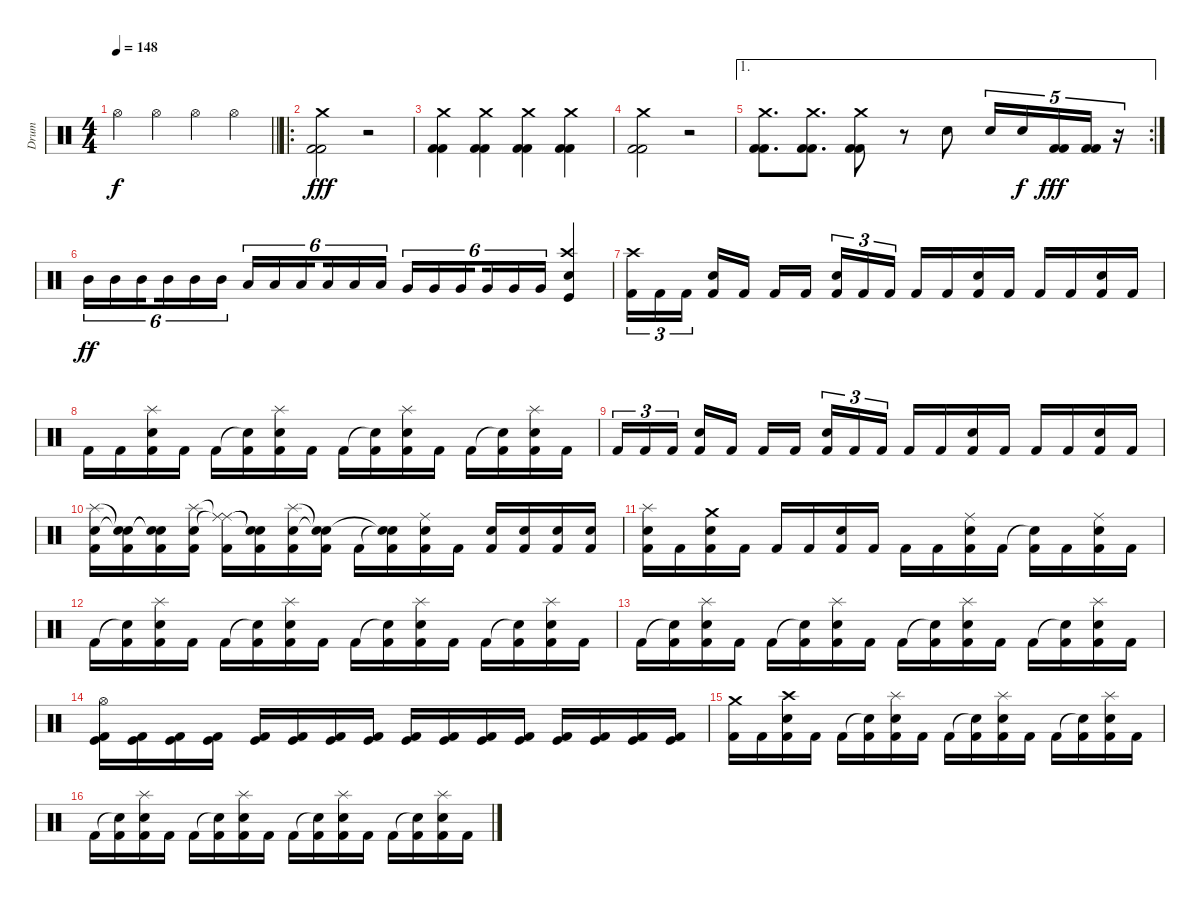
\track ("Drum" "Drum") {instrument percussion}
\staff {score}
\articulation defaults
\ts (4 4)
\tempo 148
\clef neutral
\barLineRight lightlight
\ks c "Hi-Hat (open)".4{dy f} "Hi-Hat (open)".4 "Hi-Hat (open)".4 "Hi-Hat (open)".4
|
\ro
\section ("" "")
("Crash medium (hit)" "Kick (hit) 2" "Kick (hit) 2").2{dy fff} r.2 |
("Crash medium (hit)" "Kick (hit) 2" "Kick (hit) 2").4 ("Crash medium (hit)" "Kick (hit) 2" "Kick (hit) 2").4 ("Crash medium (hit)" "Kick (hit) 2" "Kick (hit) 2").4 ("Crash medium (hit)" "Kick (hit) 2" "Kick (hit) 2").4 |
("Crash medium (hit)" "Kick (hit) 2" "Kick (hit) 2").2 r.2 |
\ae 1
\rc 2
("Crash medium (hit)" "Kick (hit) 2" "Kick (hit) 2").8{d} ("Crash medium (hit)" "Kick (hit) 2" "Kick (hit) 2").8{d} ("Crash medium (hit)" "Kick (hit) 2" "Kick (hit) 2").8 r.8 "Snare (hit) 2".8 "Snare (hit) 2".16{tu (5 4)} "Snare (hit) 2".16{tu (5 4) dy f} ("Kick (hit) 2" "Kick (hit) 2").16{tu (5 4) dy fff} ("Kick (hit) 2" "Kick (hit) 2").16{tu (5 4)} r.16{tu (5 4)} |
"Mid Tom (hit)".16{tu (6 4) dy ff} "Mid Tom (hit)".16{tu (6 4)} "Mid Tom (hit)".16{tu (6 4) beam splitsecondary} "Mid Tom (hit)".16{tu (6 4)} "Mid Tom (hit)".16{tu (6 4)} "Mid Tom (hit)".16{tu (6 4)} "Low Tom (hit)".16{tu (6 4)} "Low Tom (hit)".16{tu (6 4)} "Low Tom (hit)".16{tu (6 4) beam splitsecondary} "Low Tom (hit)".16{tu (6 4)} "Low Tom (hit)".16{tu (6 4)} "Low Tom (hit)".16{tu (6 4)} "Very Low Tom (hit)".16{tu (6 4)} "Very Low Tom (hit)".16{tu (6 4)} "Very Low Tom (hit)".16{tu (6 4) beam splitsecondary} "Very Low Tom (hit)".16{tu (6 4)} "Very Low Tom (hit)".16{tu (6 4)} "Very Low Tom (hit)".16{tu (6 4)} ("Crash high (hit)" "Snare (hit) 2" "Kick (hit)").4 |
("Crash high (hit)" "Kick (hit) 2").16{tu (3 2)} "Kick (hit) 2".16{tu (3 2)} "Kick (hit) 2".16{tu (3 2) beam splitsecondary} ("Snare (hit) 2" "Kick (hit) 2").16 "Kick (hit) 2".16 "Kick (hit) 2".16 "Kick (hit) 2".16{beam splitsecondary} ("Snare (hit) 2" "Kick (hit) 2").16{tu (3 2)} "Kick (hit) 2".16{tu (3 2)} "Kick (hit) 2".16{tu (3 2)} "Kick (hit) 2".16 "Kick (hit) 2".16 ("Snare (hit) 2" "Kick (hit) 2").16 "Kick (hit) 2".16 "Kick (hit) 2".16 "Kick (hit) 2".16 ("Snare (hit) 2" "Kick (hit) 2").16 "Kick (hit) 2".16 |
"Kick (hit) 2".16 "Kick (hit) 2".16 ("Splash (hit)" "Snare (hit) 2" "Kick (hit) 2").16 "Kick (hit) 2".16 "Kick (hit) 2".16 ("Snare (hit)"{t} "Kick (hit) 2").16 ("Splash (hit)" "Snare (hit) 2" "Kick (hit) 2").16 "Kick (hit) 2".16 "Kick (hit) 2".16 ("Snare (hit)"{t} "Kick (hit) 2").16 ("Splash (hit)" "Snare (hit) 2" "Kick (hit) 2").16 "Kick (hit) 2".16 "Kick (hit) 2".16 ("Snare (hit)"{t} "Kick (hit) 2").16 ("Splash (hit)" "Snare (hit) 2" "Kick (hit) 2").16 "Kick (hit) 2".16 |
"Kick (hit) 2".16{tu (3 2)} "Kick (hit) 2".16{tu (3 2)} "Kick (hit) 2".16{tu (3 2) beam splitsecondary} ("Snare (hit) 2" "Kick (hit) 2").16 "Kick (hit) 2".16 "Kick (hit) 2".16 "Kick (hit) 2".16{beam splitsecondary} ("Snare (hit) 2" "Kick (hit) 2").16{tu (3 2)} "Kick (hit) 2".16{tu (3 2)} "Kick (hit) 2".16{tu (3 2)} "Kick (hit) 2".16 "Kick (hit) 2".16 ("Snare (hit) 2" "Kick (hit) 2").16 "Kick (hit) 2".16 "Kick (hit) 2".16 "Kick (hit) 2".16 ("Snare (hit) 2" "Kick (hit) 2").16 "Kick (hit) 2".16 |
("Snare (hit) 2" "Splash (hit)" "Kick (hit) 2").16 ("Snare (hit)"{t} "Snare (hit)"{t} "Kick (hit) 2").16 ("Snare (hit)"{t} "Snare (hit)"{t} "Kick (hit) 2").16 ("Snare (hit) 2" "Splash (hit)" "Kick (hit) 2").16 ("Ride (middle)"{t} "Ride (middle)"{t} "Kick (hit) 2").16 ("Snare (hit)"{t} "Snare (hit)"{t} "Kick (hit) 2").16 ("Snare (hit) 2" "Splash (hit)" "Kick (hit) 2").16 ("Snare (hit)"{t} "Snare (hit)"{t} "Kick (hit) 2").16 "Kick (hit) 2".16 ("Snare (hit)"{t} "Snare (hit)"{t} "Kick (hit) 2").16 ("Snare (hit) 2" "Ride (middle)" "Kick (hit) 2").16 "Kick (hit) 2".16 ("Snare (hit) 2" "Kick (hit) 2").16 ("Snare (hit) 2" "Kick (hit) 2").16 ("Snare (hit) 2" "Kick (hit) 2").16 ("Snare (hit) 2" "Kick (hit) 2").16 |
("Splash (hit)" "Snare (hit) 2" "Kick (hit) 2").16 "Kick (hit) 2".16 ("Crash medium (hit)" "Snare (hit) 2" "Kick (hit) 2").16 "Kick (hit) 2".16 "Kick (hit) 2".16 "Kick (hit) 2".16 ("Snare (hit) 2" "Kick (hit) 2").16 "Kick (hit) 2".16 "Kick (hit) 2".16 "Kick (hit) 2".16 ("Ride (middle)" "Snare (hit) 2" "Kick (hit) 2").16 "Kick (hit) 2".16 ("Snare (hit)"{t} "Kick (hit) 2").16 "Kick (hit) 2".16 ("Ride (middle)" "Snare (hit) 2" "Kick (hit) 2").16 "Kick (hit) 2".16 |
"Kick (hit) 2".16 ("Snare (hit)"{t} "Kick (hit) 2").16 ("Splash (hit)" "Snare (hit) 2" "Kick (hit) 2").16 "Kick (hit) 2".16 "Kick (hit) 2".16 ("Snare (hit)"{t} "Kick (hit) 2").16 ("Splash (hit)" "Snare (hit) 2" "Kick (hit) 2").16 "Kick (hit) 2".16 "Kick (hit) 2".16 ("Snare (hit)"{t} "Kick (hit) 2").16 ("Splash (hit)" "Snare (hit) 2" "Kick (hit) 2").16 "Kick (hit) 2".16 "Kick (hit) 2".16 ("Snare (hit)"{t} "Kick (hit) 2").16 ("Splash (hit)" "Snare (hit) 2" "Kick (hit) 2").16 "Kick (hit) 2".16 |
"Kick (hit) 2".16 ("Snare (hit)"{t} "Kick (hit) 2").16 ("Splash (hit)" "Snare (hit) 2" "Kick (hit) 2").16 "Kick (hit) 2".16 "Kick (hit) 2".16 ("Snare (hit)"{t} "Kick (hit) 2").16 ("Splash (hit)" "Snare (hit) 2" "Kick (hit) 2").16 "Kick (hit) 2".16 "Kick (hit) 2".16 ("Snare (hit)"{t} "Kick (hit) 2").16 ("Splash (hit)" "Snare (hit) 2" "Kick (hit) 2").16 "Kick (hit) 2".16 "Kick (hit) 2".16 ("Snare (hit)"{t} "Kick (hit) 2").16 ("Splash (hit)" "Snare (hit) 2" "Kick (hit) 2").16 "Kick (hit) 2".16 |
("Hi-Hat (open)" "Kick (hit)" "Kick (hit) 2").16 ("Kick (hit)" "Kick (hit) 2").16 ("Kick (hit)" "Kick (hit) 2").16 ("Kick (hit)" "Kick (hit) 2").16 ("Kick (hit)" "Kick (hit) 2").16 ("Kick (hit)" "Kick (hit) 2").16 ("Kick (hit)" "Kick (hit) 2").16 ("Kick (hit)" "Kick (hit) 2").16 ("Kick (hit)" "Kick (hit) 2").16 ("Kick (hit)" "Kick (hit) 2").16 ("Kick (hit)" "Kick (hit) 2").16 ("Kick (hit)" "Kick (hit) 2").16 ("Kick (hit)" "Kick (hit) 2").16 ("Kick (hit)" "Kick (hit) 2").16 ("Kick (hit)" "Kick (hit) 2").16 ("Kick (hit)" "Kick (hit) 2").16 |
("Crash medium (hit)" "Kick (hit) 2").16 "Kick (hit) 2".16 ("Crash high (hit)" "Snare (hit) 2" "Kick (hit) 2").16 "Kick (hit) 2".16 "Kick (hit) 2".16 ("Snare (hit)"{t} "Kick (hit) 2").16 ("Splash (hit)" "Snare (hit) 2" "Kick (hit) 2").16 "Kick (hit) 2".16 "Kick (hit) 2".16 ("Snare (hit)"{t} "Kick (hit) 2").16 ("Splash (hit)" "Snare (hit) 2" "Kick (hit) 2").16 "Kick (hit) 2".16 "Kick (hit) 2".16 ("Snare (hit)"{t} "Kick (hit) 2").16 ("Splash (hit)" "Snare (hit) 2" "Kick (hit) 2").16 "Kick (hit) 2".16 |
"Kick (hit) 2".16 ("Snare (hit)"{t} "Kick (hit) 2").16 ("Splash (hit)" "Snare (hit) 2" "Kick (hit) 2").16 "Kick (hit) 2".16 "Kick (hit) 2".16 ("Snare (hit)"{t} "Kick (hit) 2").16 ("Splash (hit)" "Snare (hit) 2" "Kick (hit) 2").16 "Kick (hit) 2".16 "Kick (hit) 2".16 ("Snare (hit)"{t} "Kick (hit) 2").16 ("Splash (hit)" "Snare (hit) 2" "Kick (hit) 2").16 "Kick (hit) 2".16 "Kick (hit) 2".16 ("Snare (hit)"{t} "Kick (hit) 2").16 ("Splash (hit)" "Snare (hit) 2" "Kick (hit) 2").16 "Kick (hit) 2".16
